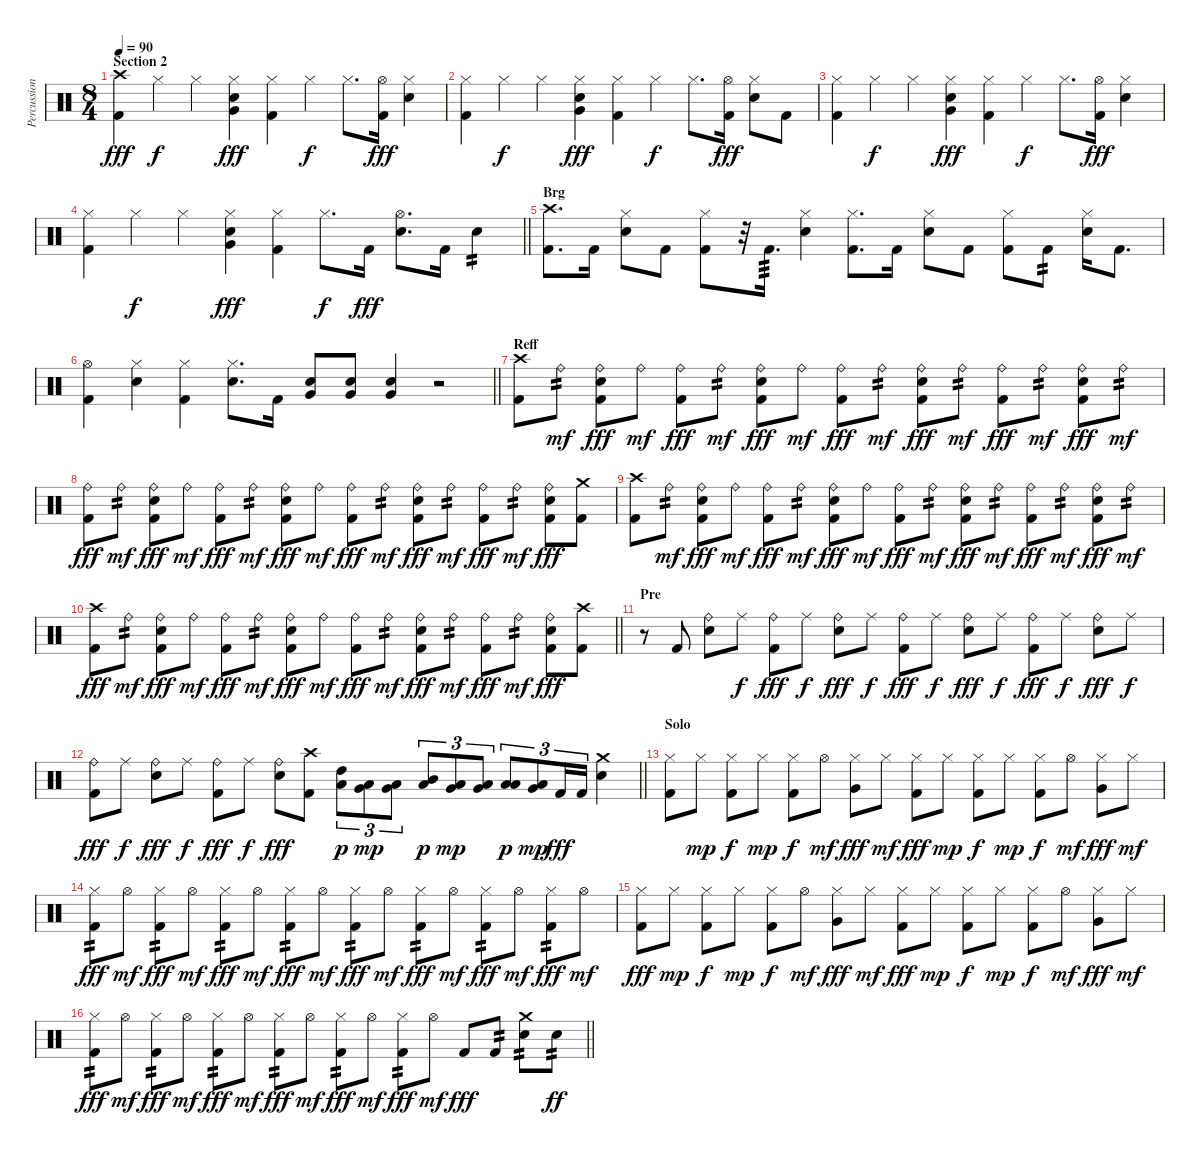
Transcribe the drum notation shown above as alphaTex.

\track ("Percussion" "Percussion") {instrument percussion}
\staff {score}
\articulation defaults
\ts (8 4)
\section ("" "Section 2")
\tempo 90
\clef neutral
\ks c
("Crash high (hit)" "Kick (hit) 2").4{dy fff} "Hi-Hat (closed)".4{dy f} "Hi-Hat (closed)".4 ("Hi-Hat (closed)" "Very Low Tom (hit)" "Electric Snare (hit)").4{dy fff} ("Hi-Hat (closed)" "Kick (hit) 2").4 "Hi-Hat (closed)".4{dy f} "Hi-Hat (closed)".8{d} ("Hi-Hat (open)" "Kick (hit) 2").16{dy fff} ("Hi-Hat (closed)" "Electric Snare (hit)").4 |
("Hi-Hat (closed)" "Kick (hit) 2").4 "Hi-Hat (closed)".4{dy f} "Hi-Hat (closed)".4 ("Hi-Hat (closed)" "Very Low Tom (hit)" "Electric Snare (hit)").4{dy fff} ("Hi-Hat (closed)" "Kick (hit) 2").4 "Hi-Hat (closed)".4{dy f} "Hi-Hat (closed)".8{d} ("Hi-Hat (open)" "Kick (hit) 2").16{dy fff} ("Hi-Hat (closed)" "Electric Snare (hit)").8 "Kick (hit) 2".8 |
("Hi-Hat (closed)" "Kick (hit) 2").4 "Hi-Hat (closed)".4{dy f} "Hi-Hat (closed)".4 ("Hi-Hat (closed)" "Very Low Tom (hit)" "Electric Snare (hit)").4{dy fff} ("Hi-Hat (closed)" "Kick (hit) 2").4 "Hi-Hat (closed)".4{dy f} "Hi-Hat (closed)".8{d} ("Hi-Hat (open)" "Kick (hit) 2").16{dy fff} ("Hi-Hat (closed)" "Electric Snare (hit)").4 |
\barLineRight lightlight
("Hi-Hat (closed)" "Kick (hit) 2").4 "Hi-Hat (closed)".4{dy f} "Hi-Hat (closed)".4 ("Hi-Hat (closed)" "Very Low Tom (hit)" "Electric Snare (hit)").4{dy fff} ("Hi-Hat (closed)" "Kick (hit) 2").4 "Hi-Hat (closed)".8{d dy f} "Kick (hit) 2".16{dy fff} ("Hi-Hat (open)" "Electric Snare (hit)").8{d} "Kick (hit) 2".16 "Electric Snare (hit)".4{tp 2} |
\section ("" "Brg")
("Crash high (hit)" "Kick (hit) 2").8{d} "Kick (hit) 2".16 ("Hi-Hat (closed)" "Electric Snare (hit)").8 "Kick (hit) 2".8 ("Hi-Hat (closed)" "Kick (hit) 2").8 r.32 "Kick (hit) 2".16{d tp 3} ("Hi-Hat (closed)" "Electric Snare (hit)").4 ("Hi-Hat (closed)" "Kick (hit) 2").8{d} "Kick (hit) 2".16 ("Hi-Hat (closed)" "Electric Snare (hit)").8 "Kick (hit) 2".8 ("Hi-Hat (closed)" "Kick (hit) 2").8 "Kick (hit) 2".8{tp 2} ("Hi-Hat (closed)" "Electric Snare (hit)").16 "Kick (hit) 2".8{d} |
\barLineRight lightlight
("Hi-Hat (open)" "Kick (hit) 2").4 ("Hi-Hat (closed)" "Electric Snare (hit)").4 ("Hi-Hat (closed)" "Kick (hit) 2").4 ("Hi-Hat (closed)" "Electric Snare (hit)").8{d} "Kick (hit) 2".16 ("Very Low Tom (hit)" "Electric Snare (hit)").8 ("Very Low Tom (hit)" "Electric Snare (hit)").8 ("Very Low Tom (hit)" "Electric Snare (hit)").4 r.2 |
\section ("" "Reff")
("Crash high (hit)" "Kick (hit) 2").8 "Ride (bell)".8{tp 2 dy mf} ("Ride (bell)" "Electric Snare (hit)" "Kick (hit) 2").8{dy fff} "Ride (bell)".8{dy mf} ("Ride (bell)" "Kick (hit) 2").8{dy fff} "Ride (bell)".8{tp 2 dy mf} ("Ride (bell)" "Electric Snare (hit)" "Kick (hit) 2").8{dy fff} "Ride (bell)".8{dy mf} ("Ride (bell)" "Kick (hit) 2").8{dy fff} "Ride (bell)".8{tp 2 dy mf} ("Ride (bell)" "Electric Snare (hit)" "Kick (hit) 2").8{dy fff} "Ride (bell)".8{tp 2 dy mf} ("Ride (bell)" "Kick (hit) 2").8{dy fff} "Ride (bell)".8{tp 2 dy mf} ("Ride (bell)" "Electric Snare (hit)" "Kick (hit) 2").8{dy fff} "Ride (bell)".8{tp 2 dy mf} |
("Ride (bell)" "Kick (hit) 2").8{dy fff} "Ride (bell)".8{tp 2 dy mf} ("Ride (bell)" "Electric Snare (hit)" "Kick (hit) 2").8{dy fff} "Ride (bell)".8{dy mf} ("Ride (bell)" "Kick (hit) 2").8{dy fff} "Ride (bell)".8{tp 2 dy mf} ("Ride (bell)" "Electric Snare (hit)" "Kick (hit) 2").8{dy fff} "Ride (bell)".8{dy mf} ("Ride (bell)" "Kick (hit) 2").8{dy fff} "Ride (bell)".8{tp 2 dy mf} ("Ride (bell)" "Electric Snare (hit)" "Kick (hit) 2").8{dy fff} "Ride (bell)".8{tp 2 dy mf} ("Ride (bell)" "Kick (hit) 2").8{dy fff} "Ride (bell)".8{tp 2 dy mf} ("Ride (bell)" "Electric Snare (hit)" "Kick (hit) 2").8{dy fff} ("Crash medium (hit)" "Kick (hit) 2").8 |
("Crash high (hit)" "Kick (hit) 2").8 "Ride (bell)".8{tp 2 dy mf} ("Ride (bell)" "Electric Snare (hit)" "Kick (hit) 2").8{dy fff} "Ride (bell)".8{dy mf} ("Ride (bell)" "Kick (hit) 2").8{dy fff} "Ride (bell)".8{tp 2 dy mf} ("Ride (bell)" "Electric Snare (hit)" "Kick (hit) 2").8{dy fff} "Ride (bell)".8{dy mf} ("Ride (bell)" "Kick (hit) 2").8{dy fff} "Ride (bell)".8{tp 2 dy mf} ("Ride (bell)" "Electric Snare (hit)" "Kick (hit) 2").8{dy fff} "Ride (bell)".8{tp 2 dy mf} ("Ride (bell)" "Kick (hit) 2").8{dy fff} "Ride (bell)".8{tp 2 dy mf} ("Ride (bell)" "Electric Snare (hit)" "Kick (hit) 2").8{dy fff} "Ride (bell)".8{tp 2 dy mf} |
\barLineRight lightlight
("Crash high (hit)" "Kick (hit) 2").8{dy fff} "Ride (bell)".8{tp 2 dy mf} ("Ride (bell)" "Electric Snare (hit)" "Kick (hit) 2").8{dy fff} "Ride (bell)".8{dy mf} ("Ride (bell)" "Kick (hit) 2").8{dy fff} "Ride (bell)".8{tp 2 dy mf} ("Ride (bell)" "Electric Snare (hit)" "Kick (hit) 2").8{dy fff} "Ride (bell)".8{dy mf} ("Ride (bell)" "Kick (hit) 2").8{dy fff} "Ride (bell)".8{tp 2 dy mf} ("Ride (bell)" "Electric Snare (hit)" "Kick (hit) 2").8{dy fff} "Ride (bell)".8{tp 2 dy mf} ("Ride (bell)" "Kick (hit) 2").8{dy fff} "Ride (bell)".8{tp 2 dy mf} ("Ride (bell)" "Electric Snare (hit)" "Kick (hit) 2").8{dy fff} ("Crash high (hit)" "Kick (hit) 2").8 |
\section ("" "Pre")
r.8 "Kick (hit) 2".8 ("Ride (bell)" "Electric Snare (hit)").8 "Ride (middle)".8{dy f} ("Ride (bell)" "Kick (hit) 2").8{dy fff} "Ride (middle)".8{dy f} ("Ride (bell)" "Electric Snare (hit)").8{dy fff} "Ride (middle)".8{dy f} ("Ride (bell)" "Kick (hit) 2").8{dy fff} "Ride (middle)".8{dy f} ("Ride (bell)" "Electric Snare (hit)").8{dy fff} "Ride (middle)".8{dy f} ("Ride (bell)" "Kick (hit) 2").8{dy fff} "Ride (middle)".8{dy f} ("Ride (bell)" "Electric Snare (hit)").8{dy fff} "Ride (middle)".8{dy f} |
\barLineRight lightlight
("Ride (bell)" "Kick (hit) 2").8{dy fff} "Ride (middle)".8{dy f} ("Ride (bell)" "Electric Snare (hit)").8{dy fff} "Ride (middle)".8{dy f} ("Ride (bell)" "Kick (hit) 2").8{dy fff} "Ride (middle)".8{dy f} ("Ride (bell)" "Electric Snare (hit)").8{dy fff} ("Crash high (hit)" "Kick (hit) 2").8 ("High Tom (hit)" "Low Floor Tom (hit)").8{tu (3 2) dy p} ("Very Low Tom (hit)" "Low Floor Tom (hit)").8{tu (3 2) dy mp} ("Very Low Tom (hit)" "Low Floor Tom (hit)").8{tu (3 2)} ("Mid Tom (hit)" "Low Floor Tom (hit)").8{tu (3 2) dy p} ("Very Low Tom (hit)" "Low Floor Tom (hit)").8{tu (3 2) dy mp} ("Very Low Tom (hit)" "Low Floor Tom (hit)").8{tu (3 2)} ("Low Tom (hit)" "Low Floor Tom (hit)").8{tu (3 2) dy p} ("Very Low Tom (hit)" "Low Floor Tom (hit)").8{tu (3 2) dy mp} "Kick (hit) 2".16{tu (3 2) dy fff} "Kick (hit) 2".16{tu (3 2)} ("Crash medium (hit)" "Electric Snare (hit)").4 |
\section ("" "Solo")
("Hi-Hat (closed)" "Kick (hit) 2").8 "Hi-Hat (closed)".8{dy mp} ("Hi-Hat (closed)" "Kick (hit) 2").8{dy f} "Hi-Hat (closed)".8{dy mp} ("Hi-Hat (closed)" "Kick (hit) 2").8{dy f} "Hi-Hat (open)".8{dy mf} ("Hi-Hat (closed)" "Very Low Tom (hit)").8{dy fff} "Hi-Hat (closed)".8{dy mf} ("Hi-Hat (closed)" "Kick (hit) 2").8{dy fff} "Hi-Hat (closed)".8{dy mp} ("Hi-Hat (closed)" "Kick (hit) 2").8{dy f} "Hi-Hat (closed)".8{dy mp} ("Hi-Hat (closed)" "Kick (hit) 2").8{dy f} "Hi-Hat (open)".8{dy mf} ("Hi-Hat (closed)" "Very Low Tom (hit)").8{dy fff} "Hi-Hat (closed)".8{dy mf} |
("Hi-Hat (closed)" "Kick (hit) 2").8{tp 2 dy fff} "Hi-Hat (open)".8{dy mf} ("Hi-Hat (closed)" "Kick (hit) 2").8{tp 2 dy fff} "Hi-Hat (open)".8{dy mf} ("Hi-Hat (closed)" "Kick (hit) 2").8{tp 2 dy fff} "Hi-Hat (open)".8{dy mf} ("Hi-Hat (closed)" "Kick (hit) 2").8{tp 2 dy fff} "Hi-Hat (open)".8{dy mf} ("Hi-Hat (closed)" "Kick (hit) 2").8{tp 2 dy fff} "Hi-Hat (open)".8{dy mf} ("Hi-Hat (closed)" "Kick (hit) 2").8{tp 2 dy fff} "Hi-Hat (open)".8{dy mf} ("Hi-Hat (closed)" "Kick (hit) 2").8{tp 2 dy fff} "Hi-Hat (open)".8{dy mf} ("Hi-Hat (closed)" "Kick (hit) 2").8{tp 2 dy fff} "Hi-Hat (open)".8{dy mf} |
("Hi-Hat (closed)" "Kick (hit) 2").8{dy fff} "Hi-Hat (closed)".8{dy mp} ("Hi-Hat (closed)" "Kick (hit) 2").8{dy f} "Hi-Hat (closed)".8{dy mp} ("Hi-Hat (closed)" "Kick (hit) 2").8{dy f} "Hi-Hat (open)".8{dy mf} ("Hi-Hat (closed)" "Very Low Tom (hit)").8{dy fff} "Hi-Hat (closed)".8{dy mf} ("Hi-Hat (closed)" "Kick (hit) 2").8{dy fff} "Hi-Hat (closed)".8{dy mp} ("Hi-Hat (closed)" "Kick (hit) 2").8{dy f} "Hi-Hat (closed)".8{dy mp} ("Hi-Hat (closed)" "Kick (hit) 2").8{dy f} "Hi-Hat (open)".8{dy mf} ("Hi-Hat (closed)" "Very Low Tom (hit)").8{dy fff} "Hi-Hat (closed)".8{dy mf} |
\barLineRight lightlight
("Hi-Hat (closed)" "Kick (hit) 2").8{tp 2 dy fff} "Hi-Hat (open)".8{dy mf} ("Hi-Hat (closed)" "Kick (hit) 2").8{tp 2 dy fff} "Hi-Hat (open)".8{dy mf} ("Hi-Hat (closed)" "Kick (hit) 2").8{tp 2 dy fff} "Hi-Hat (open)".8{dy mf} ("Hi-Hat (closed)" "Kick (hit) 2").8{tp 2 dy fff} "Hi-Hat (open)".8{dy mf} ("Hi-Hat (closed)" "Kick (hit) 2").8{tp 2 dy fff} "Hi-Hat (open)".8{dy mf} ("Hi-Hat (closed)" "Kick (hit) 2").8{tp 2 dy fff} "Hi-Hat (open)".8{dy mf} "Kick (hit) 2".8{dy fff} "Kick (hit) 2".8{tp 2} ("Crash medium (hit)" "Electric Snare (hit)").8{tp 2} "Electric Snare (hit)".8{tp 2 dy ff}
